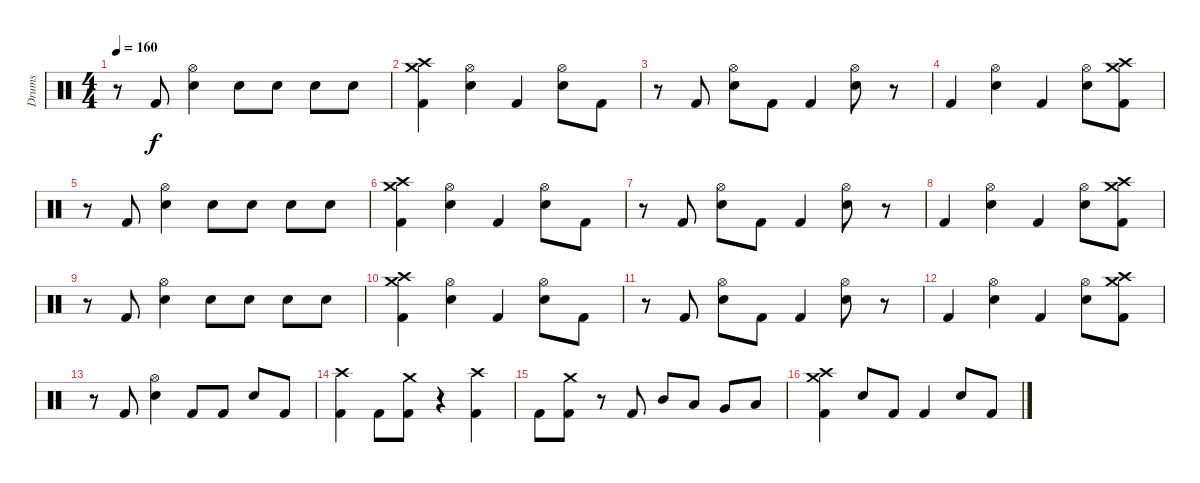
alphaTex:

\track ("Drums" "Drums") {instrument percussion}
\staff {score}
\articulation defaults
\ts (4 4)
\tempo 160
\clef neutral
\ks c
r.8{dy f} "Kick (hit) 2".8 ("Hi-Hat (open)" "Snare (hit) 2").4 "Snare (hit) 2".8 "Snare (hit) 2".8 "Snare (hit) 2".8 "Snare (hit) 2".8 |
("Crash medium (hit)" "Crash high (hit)" "Kick (hit) 2").4 ("Hi-Hat (open)" "Snare (hit) 2").4 "Kick (hit) 2".4 ("Hi-Hat (open)" "Snare (hit) 2").8 "Kick (hit) 2".8 |
r.8 "Kick (hit) 2".8 ("Hi-Hat (open)" "Snare (hit) 2").8 "Kick (hit) 2".8 "Kick (hit) 2".4 ("Hi-Hat (open)" "Snare (hit) 2").8 r.8 |
"Kick (hit) 2".4 ("Hi-Hat (open)" "Snare (hit) 2").4 "Kick (hit) 2".4 ("Hi-Hat (open)" "Snare (hit) 2").8 ("Crash medium (hit)" "Crash high (hit)" "Kick (hit) 2").8 |
r.8 "Kick (hit) 2".8 ("Hi-Hat (open)" "Snare (hit) 2").4 "Snare (hit) 2".8 "Snare (hit) 2".8 "Snare (hit) 2".8 "Snare (hit) 2".8 |
("Crash medium (hit)" "Crash high (hit)" "Kick (hit) 2").4 ("Hi-Hat (open)" "Snare (hit) 2").4 "Kick (hit) 2".4 ("Hi-Hat (open)" "Snare (hit) 2").8 "Kick (hit) 2".8 |
r.8 "Kick (hit) 2".8 ("Hi-Hat (open)" "Snare (hit) 2").8 "Kick (hit) 2".8 "Kick (hit) 2".4 ("Hi-Hat (open)" "Snare (hit) 2").8 r.8 |
"Kick (hit) 2".4 ("Hi-Hat (open)" "Snare (hit) 2").4 "Kick (hit) 2".4 ("Hi-Hat (open)" "Snare (hit) 2").8 ("Crash medium (hit)" "Crash high (hit)" "Kick (hit) 2").8 |
r.8 "Kick (hit) 2".8 ("Hi-Hat (open)" "Snare (hit) 2").4 "Snare (hit) 2".8 "Snare (hit) 2".8 "Snare (hit) 2".8 "Snare (hit) 2".8 |
("Crash medium (hit)" "Crash high (hit)" "Kick (hit) 2").4 ("Hi-Hat (open)" "Snare (hit) 2").4 "Kick (hit) 2".4 ("Hi-Hat (open)" "Snare (hit) 2").8 "Kick (hit) 2".8 |
r.8 "Kick (hit) 2".8 ("Hi-Hat (open)" "Snare (hit) 2").8 "Kick (hit) 2".8 "Kick (hit) 2".4 ("Hi-Hat (open)" "Snare (hit) 2").8 r.8 |
"Kick (hit) 2".4 ("Hi-Hat (open)" "Snare (hit) 2").4 "Kick (hit) 2".4 ("Hi-Hat (open)" "Snare (hit) 2").8 ("Crash medium (hit)" "Crash high (hit)" "Kick (hit) 2").8 |
r.8 "Kick (hit) 2".8 ("Hi-Hat (open)" "Snare (hit) 2").4 "Kick (hit) 2".8 "Kick (hit) 2".8 "Snare (hit) 2".8 "Kick (hit) 2".8 |
("Crash high (hit)" "Kick (hit) 2").4 "Kick (hit) 2".8 ("Crash medium (hit)" "Kick (hit) 2").8 r.4 ("Crash high (hit)" "Kick (hit) 2").4 |
"Kick (hit) 2".8 ("Crash medium (hit)" "Kick (hit) 2").8 r.8 "Kick (hit) 2".8 "Mid Tom (hit)".8 "Low Tom (hit)".8 "Very Low Tom (hit)".8 "Low Floor Tom (hit)".8 |
("Crash medium (hit)" "Crash high (hit)" "Kick (hit) 2").4 "Snare (hit) 2".8 "Kick (hit) 2".8 "Kick (hit) 2".4 "Snare (hit) 2".8 "Kick (hit) 2".8
